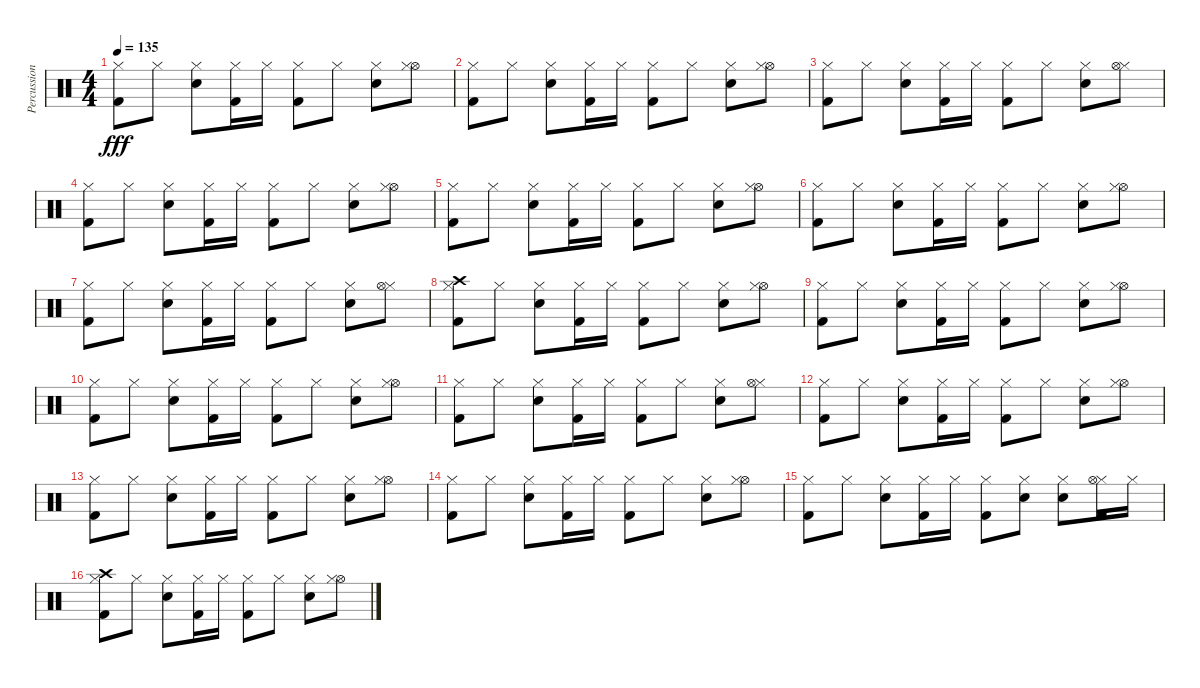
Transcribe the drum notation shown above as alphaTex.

\track ("Percussion" "Percussion") {instrument percussion}
\staff {score}
\articulation defaults
\ts (4 4)
\tempo 135
\clef neutral
\ks c
("Hi-Hat (closed)" "Kick (hit) 2").8{dy fff} "Hi-Hat (closed)".8 ("Hi-Hat (closed)" "Snare (hit) 2").8 ("Kick (hit) 2" "Hi-Hat (closed)").16 "Hi-Hat (closed)".16 ("Hi-Hat (closed)" "Kick (hit) 2").8 "Hi-Hat (closed)".8 ("Hi-Hat (closed)" "Snare (hit) 2").8 ("Hi-Hat (open)" "Hi-Hat (closed)").8 |
("Hi-Hat (closed)" "Kick (hit) 2").8 "Hi-Hat (closed)".8 ("Snare (hit) 2" "Hi-Hat (closed)").8 ("Hi-Hat (closed)" "Kick (hit) 2").16 "Hi-Hat (closed)".16 ("Hi-Hat (closed)" "Kick (hit) 2").8 "Hi-Hat (closed)".8 ("Hi-Hat (closed)" "Snare (hit) 2").8 ("Hi-Hat (open)" "Hi-Hat (closed)").8 |
("Hi-Hat (closed)" "Kick (hit) 2").8 "Hi-Hat (closed)".8 ("Hi-Hat (closed)" "Snare (hit) 2").8 ("Kick (hit) 2" "Hi-Hat (closed)").16 "Hi-Hat (closed)".16 ("Hi-Hat (closed)" "Kick (hit) 2").8 "Hi-Hat (closed)".8 ("Snare (hit) 2" "Hi-Hat (closed)").8 ("Hi-Hat (closed)" "Hi-Hat (open)").8 |
("Hi-Hat (closed)" "Kick (hit) 2").8 "Hi-Hat (closed)".8 ("Hi-Hat (closed)" "Snare (hit) 2").8 ("Hi-Hat (closed)" "Kick (hit) 2").16 "Hi-Hat (closed)".16 ("Hi-Hat (closed)" "Kick (hit) 2").8 "Hi-Hat (closed)".8 ("Snare (hit) 2" "Hi-Hat (closed)").8 ("Hi-Hat (open)" "Hi-Hat (closed)").8 |
("Hi-Hat (closed)" "Kick (hit) 2").8 "Hi-Hat (closed)".8 ("Hi-Hat (closed)" "Snare (hit) 2").8 ("Kick (hit) 2" "Hi-Hat (closed)").16 "Hi-Hat (closed)".16 ("Hi-Hat (closed)" "Kick (hit) 2").8 "Hi-Hat (closed)".8 ("Hi-Hat (closed)" "Snare (hit) 2").8 ("Hi-Hat (open)" "Hi-Hat (closed)").8 |
("Hi-Hat (closed)" "Kick (hit) 2").8 "Hi-Hat (closed)".8 ("Snare (hit) 2" "Hi-Hat (closed)").8 ("Hi-Hat (closed)" "Kick (hit) 2").16 "Hi-Hat (closed)".16 ("Hi-Hat (closed)" "Kick (hit) 2").8 "Hi-Hat (closed)".8 ("Hi-Hat (closed)" "Snare (hit) 2").8 ("Hi-Hat (open)" "Hi-Hat (closed)").8 |
("Hi-Hat (closed)" "Kick (hit) 2").8 "Hi-Hat (closed)".8 ("Hi-Hat (closed)" "Snare (hit) 2").8 ("Kick (hit) 2" "Hi-Hat (closed)").16 "Hi-Hat (closed)".16 ("Hi-Hat (closed)" "Kick (hit) 2").8 "Hi-Hat (closed)".8 ("Snare (hit) 2" "Hi-Hat (closed)").8 ("Hi-Hat (closed)" "Hi-Hat (open)").8 |
("Crash high (hit)" "Hi-Hat (closed)" "Kick (hit) 2").8 "Hi-Hat (closed)".8 ("Hi-Hat (closed)" "Snare (hit) 2").8 ("Hi-Hat (closed)" "Kick (hit) 2").16 "Hi-Hat (closed)".16 ("Hi-Hat (closed)" "Kick (hit) 2").8 "Hi-Hat (closed)".8 ("Snare (hit) 2" "Hi-Hat (closed)").8 ("Hi-Hat (open)" "Hi-Hat (closed)").8 |
("Hi-Hat (closed)" "Kick (hit) 2").8 "Hi-Hat (closed)".8 ("Hi-Hat (closed)" "Snare (hit) 2").8 ("Kick (hit) 2" "Hi-Hat (closed)").16 "Hi-Hat (closed)".16 ("Hi-Hat (closed)" "Kick (hit) 2").8 "Hi-Hat (closed)".8 ("Hi-Hat (closed)" "Snare (hit) 2").8 ("Hi-Hat (open)" "Hi-Hat (closed)").8 |
("Hi-Hat (closed)" "Kick (hit) 2").8 "Hi-Hat (closed)".8 ("Snare (hit) 2" "Hi-Hat (closed)").8 ("Hi-Hat (closed)" "Kick (hit) 2").16 "Hi-Hat (closed)".16 ("Hi-Hat (closed)" "Kick (hit) 2").8 "Hi-Hat (closed)".8 ("Hi-Hat (closed)" "Snare (hit) 2").8 ("Hi-Hat (open)" "Hi-Hat (closed)").8 |
("Hi-Hat (closed)" "Kick (hit) 2").8 "Hi-Hat (closed)".8 ("Hi-Hat (closed)" "Snare (hit) 2").8 ("Kick (hit) 2" "Hi-Hat (closed)").16 "Hi-Hat (closed)".16 ("Hi-Hat (closed)" "Kick (hit) 2").8 "Hi-Hat (closed)".8 ("Snare (hit) 2" "Hi-Hat (closed)").8 ("Hi-Hat (closed)" "Hi-Hat (open)").8 |
("Hi-Hat (closed)" "Kick (hit) 2").8 "Hi-Hat (closed)".8 ("Hi-Hat (closed)" "Snare (hit) 2").8 ("Hi-Hat (closed)" "Kick (hit) 2").16 "Hi-Hat (closed)".16 ("Hi-Hat (closed)" "Kick (hit) 2").8 "Hi-Hat (closed)".8 ("Snare (hit) 2" "Hi-Hat (closed)").8 ("Hi-Hat (open)" "Hi-Hat (closed)").8 |
("Hi-Hat (closed)" "Kick (hit) 2").8 "Hi-Hat (closed)".8 ("Hi-Hat (closed)" "Snare (hit) 2").8 ("Kick (hit) 2" "Hi-Hat (closed)").16 "Hi-Hat (closed)".16 ("Hi-Hat (closed)" "Kick (hit) 2").8 "Hi-Hat (closed)".8 ("Hi-Hat (closed)" "Snare (hit) 2").8 ("Hi-Hat (open)" "Hi-Hat (closed)").8 |
("Hi-Hat (closed)" "Kick (hit) 2").8 "Hi-Hat (closed)".8 ("Snare (hit) 2" "Hi-Hat (closed)").8 ("Hi-Hat (closed)" "Kick (hit) 2").16 "Hi-Hat (closed)".16 ("Hi-Hat (closed)" "Kick (hit) 2").8 "Hi-Hat (closed)".8 ("Hi-Hat (closed)" "Snare (hit) 2").8 ("Hi-Hat (open)" "Hi-Hat (closed)").8 |
("Hi-Hat (closed)" "Kick (hit) 2").8 "Hi-Hat (closed)".8 ("Hi-Hat (closed)" "Snare (hit) 2").8 ("Kick (hit) 2" "Hi-Hat (closed)").16 "Hi-Hat (closed)".16 ("Hi-Hat (closed)" "Kick (hit) 2").8 ("Hi-Hat (closed)" "Snare (hit) 2").8 ("Snare (hit) 2" "Hi-Hat (closed)").8 ("Hi-Hat (closed)" "Hi-Hat (open)" "Kick (hit) 2").16 "Hi-Hat (closed)".16 |
("Crash high (hit)" "Hi-Hat (closed)" "Kick (hit) 2").8 "Hi-Hat (closed)".8 ("Hi-Hat (closed)" "Snare (hit) 2").8 ("Hi-Hat (closed)" "Kick (hit) 2").16 "Hi-Hat (closed)".16 ("Hi-Hat (closed)" "Kick (hit) 2").8 "Hi-Hat (closed)".8 ("Snare (hit) 2" "Hi-Hat (closed)").8 ("Hi-Hat (open)" "Hi-Hat (closed)").8
